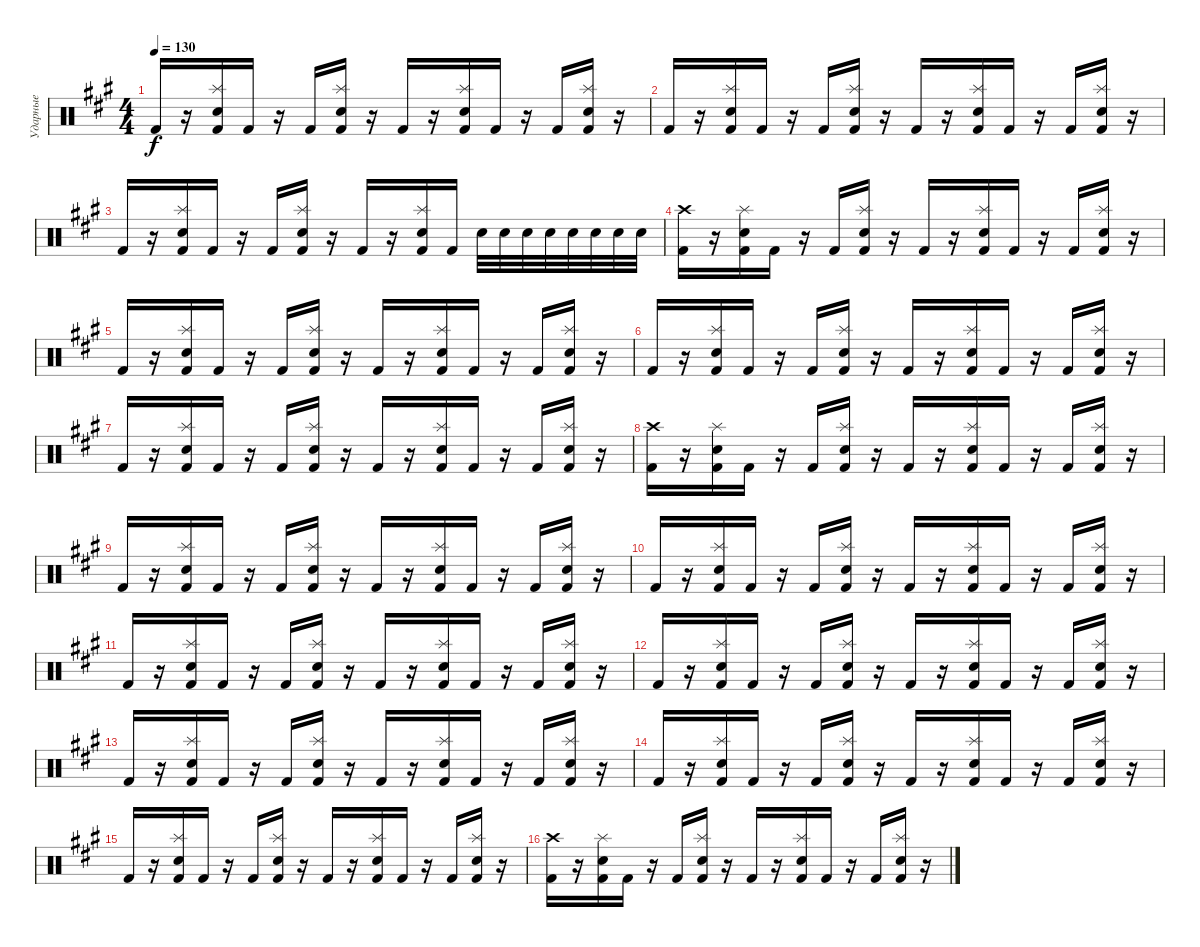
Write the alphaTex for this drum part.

\track ("Ударные" "Ударные") {instrument percussion}
\staff {score}
\articulation defaults
\ts (4 4)
\tempo 130
\clef neutral
\ks f#minor "Kick (hit) 2".16{dy f}
r.16 ("Splash (hit)" "Snare (hit) 2" "Kick (hit) 2").16 "Kick (hit) 2".16 r.16 "Kick (hit) 2".16 ("Splash (hit)" "Snare (hit) 2" "Kick (hit) 2").16 r.16 "Kick (hit) 2".16 r.16 ("Splash (hit)" "Snare (hit) 2" "Kick (hit) 2").16 "Kick (hit) 2".16 r.16 "Kick (hit) 2".16 ("Splash (hit)" "Snare (hit) 2" "Kick (hit) 2").16 r.16 |
"Kick (hit) 2".16 r.16 ("Splash (hit)" "Snare (hit) 2" "Kick (hit) 2").16 "Kick (hit) 2".16 r.16 "Kick (hit) 2".16 ("Splash (hit)" "Snare (hit) 2" "Kick (hit) 2").16 r.16 "Kick (hit) 2".16 r.16 ("Splash (hit)" "Snare (hit) 2" "Kick (hit) 2").16 "Kick (hit) 2".16 r.16 "Kick (hit) 2".16 ("Splash (hit)" "Snare (hit) 2" "Kick (hit) 2").16 r.16 |
"Kick (hit) 2".16 r.16 ("Splash (hit)" "Snare (hit) 2" "Kick (hit) 2").16 "Kick (hit) 2".16 r.16 "Kick (hit) 2".16 ("Splash (hit)" "Snare (hit) 2" "Kick (hit) 2").16 r.16 "Kick (hit) 2".16 r.16 ("Splash (hit)" "Snare (hit) 2" "Kick (hit) 2").16 "Kick (hit) 2".16 "Snare (hit) 2".32 "Snare (hit) 2".32 "Snare (hit) 2".32 "Snare (hit) 2".32 "Snare (hit) 2".32 "Snare (hit) 2".32 "Snare (hit) 2".32 "Snare (hit) 2".32 |
("Crash high (hit)" "Kick (hit) 2").16 r.16 ("Splash (hit)" "Snare (hit) 2" "Kick (hit) 2").16 "Kick (hit) 2".16 r.16 "Kick (hit) 2".16 ("Splash (hit)" "Snare (hit) 2" "Kick (hit) 2").16 r.16 "Kick (hit) 2".16 r.16 ("Splash (hit)" "Snare (hit) 2" "Kick (hit) 2").16 "Kick (hit) 2".16 r.16 "Kick (hit) 2".16 ("Splash (hit)" "Snare (hit) 2" "Kick (hit) 2").16 r.16 |
"Kick (hit) 2".16 r.16 ("Splash (hit)" "Snare (hit) 2" "Kick (hit) 2").16 "Kick (hit) 2".16 r.16 "Kick (hit) 2".16 ("Splash (hit)" "Snare (hit) 2" "Kick (hit) 2").16 r.16 "Kick (hit) 2".16 r.16 ("Splash (hit)" "Snare (hit) 2" "Kick (hit) 2").16 "Kick (hit) 2".16 r.16 "Kick (hit) 2".16 ("Splash (hit)" "Snare (hit) 2" "Kick (hit) 2").16 r.16 |
"Kick (hit) 2".16 r.16 ("Splash (hit)" "Snare (hit) 2" "Kick (hit) 2").16 "Kick (hit) 2".16 r.16 "Kick (hit) 2".16 ("Splash (hit)" "Snare (hit) 2" "Kick (hit) 2").16 r.16 "Kick (hit) 2".16 r.16 ("Splash (hit)" "Snare (hit) 2" "Kick (hit) 2").16 "Kick (hit) 2".16 r.16 "Kick (hit) 2".16 ("Splash (hit)" "Snare (hit) 2" "Kick (hit) 2").16 r.16 |
"Kick (hit) 2".16 r.16 ("Splash (hit)" "Snare (hit) 2" "Kick (hit) 2").16 "Kick (hit) 2".16 r.16 "Kick (hit) 2".16 ("Splash (hit)" "Snare (hit) 2" "Kick (hit) 2").16 r.16 "Kick (hit) 2".16 r.16 ("Splash (hit)" "Snare (hit) 2" "Kick (hit) 2").16 "Kick (hit) 2".16 r.16 "Kick (hit) 2".16 ("Splash (hit)" "Snare (hit) 2" "Kick (hit) 2").16 r.16 |
("Crash high (hit)" "Kick (hit) 2").16 r.16 ("Splash (hit)" "Snare (hit) 2" "Kick (hit) 2").16 "Kick (hit) 2".16 r.16 "Kick (hit) 2".16 ("Splash (hit)" "Snare (hit) 2" "Kick (hit) 2").16 r.16 "Kick (hit) 2".16 r.16 ("Splash (hit)" "Snare (hit) 2" "Kick (hit) 2").16 "Kick (hit) 2".16 r.16 "Kick (hit) 2".16 ("Splash (hit)" "Snare (hit) 2" "Kick (hit) 2").16 r.16 |
"Kick (hit) 2".16 r.16 ("Splash (hit)" "Snare (hit) 2" "Kick (hit) 2").16 "Kick (hit) 2".16 r.16 "Kick (hit) 2".16 ("Splash (hit)" "Snare (hit) 2" "Kick (hit) 2").16 r.16 "Kick (hit) 2".16 r.16 ("Splash (hit)" "Snare (hit) 2" "Kick (hit) 2").16 "Kick (hit) 2".16 r.16 "Kick (hit) 2".16 ("Splash (hit)" "Snare (hit) 2" "Kick (hit) 2").16 r.16 |
"Kick (hit) 2".16 r.16 ("Splash (hit)" "Snare (hit) 2" "Kick (hit) 2").16 "Kick (hit) 2".16 r.16 "Kick (hit) 2".16 ("Splash (hit)" "Snare (hit) 2" "Kick (hit) 2").16 r.16 "Kick (hit) 2".16 r.16 ("Splash (hit)" "Snare (hit) 2" "Kick (hit) 2").16 "Kick (hit) 2".16 r.16 "Kick (hit) 2".16 ("Splash (hit)" "Snare (hit) 2" "Kick (hit) 2").16 r.16 |
"Kick (hit) 2".16 r.16 ("Splash (hit)" "Snare (hit) 2" "Kick (hit) 2").16 "Kick (hit) 2".16 r.16 "Kick (hit) 2".16 ("Splash (hit)" "Snare (hit) 2" "Kick (hit) 2").16 r.16 "Kick (hit) 2".16 r.16 ("Splash (hit)" "Snare (hit) 2" "Kick (hit) 2").16 "Kick (hit) 2".16 r.16 "Kick (hit) 2".16 ("Splash (hit)" "Snare (hit) 2" "Kick (hit) 2").16 r.16 |
"Kick (hit) 2".16 r.16 ("Splash (hit)" "Snare (hit) 2" "Kick (hit) 2").16 "Kick (hit) 2".16 r.16 "Kick (hit) 2".16 ("Splash (hit)" "Snare (hit) 2" "Kick (hit) 2").16 r.16 "Kick (hit) 2".16 r.16 ("Splash (hit)" "Snare (hit) 2" "Kick (hit) 2").16 "Kick (hit) 2".16 r.16 "Kick (hit) 2".16 ("Splash (hit)" "Snare (hit) 2" "Kick (hit) 2").16 r.16 |
"Kick (hit) 2".16 r.16 ("Splash (hit)" "Snare (hit) 2" "Kick (hit) 2").16 "Kick (hit) 2".16 r.16 "Kick (hit) 2".16 ("Splash (hit)" "Snare (hit) 2" "Kick (hit) 2").16 r.16 "Kick (hit) 2".16 r.16 ("Splash (hit)" "Snare (hit) 2" "Kick (hit) 2").16 "Kick (hit) 2".16 r.16 "Kick (hit) 2".16 ("Splash (hit)" "Snare (hit) 2" "Kick (hit) 2").16 r.16 |
"Kick (hit) 2".16 r.16 ("Splash (hit)" "Snare (hit) 2" "Kick (hit) 2").16 "Kick (hit) 2".16 r.16 "Kick (hit) 2".16 ("Splash (hit)" "Snare (hit) 2" "Kick (hit) 2").16 r.16 "Kick (hit) 2".16 r.16 ("Splash (hit)" "Snare (hit) 2" "Kick (hit) 2").16 "Kick (hit) 2".16 r.16 "Kick (hit) 2".16 ("Splash (hit)" "Snare (hit) 2" "Kick (hit) 2").16 r.16 |
"Kick (hit) 2".16 r.16 ("Splash (hit)" "Snare (hit) 2" "Kick (hit) 2").16 "Kick (hit) 2".16 r.16 "Kick (hit) 2".16 ("Splash (hit)" "Snare (hit) 2" "Kick (hit) 2").16 r.16 "Kick (hit) 2".16 r.16 ("Splash (hit)" "Snare (hit) 2" "Kick (hit) 2").16 "Kick (hit) 2".16 r.16 "Kick (hit) 2".16 ("Splash (hit)" "Snare (hit) 2" "Kick (hit) 2").16 r.16 |
("Crash high (hit)" "Kick (hit) 2").16 r.16 ("Splash (hit)" "Snare (hit) 2" "Kick (hit) 2").16 "Kick (hit) 2".16 r.16 "Kick (hit) 2".16 ("Splash (hit)" "Snare (hit) 2" "Kick (hit) 2").16 r.16 "Kick (hit) 2".16 r.16 ("Splash (hit)" "Snare (hit) 2" "Kick (hit) 2").16 "Kick (hit) 2".16 r.16 "Kick (hit) 2".16 ("Splash (hit)" "Snare (hit) 2" "Kick (hit) 2").16 r.16
